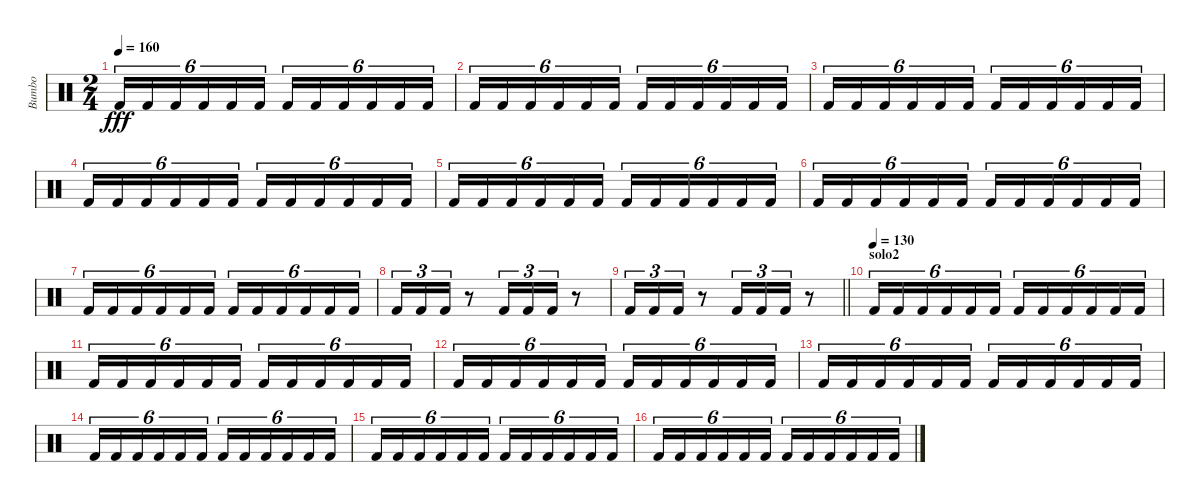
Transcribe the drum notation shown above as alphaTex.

\track ("Bumbo" "Bumbo") {instrument percussion}
\staff {score}
\articulation defaults
\ts (2 4)
\tempo 160
\clef neutral
\ks c "Kick (hit) 2".16{tu (6 4) dy fff} "Kick (hit) 2".16{tu (6 4)} "Kick (hit) 2".16{tu (6 4)} "Kick (hit) 2".16{tu (6 4)} "Kick (hit) 2".16{tu (6 4)} "Kick (hit) 2".16{tu (6 4)} "Kick (hit) 2".16{tu (6 4)} "Kick (hit) 2".16{tu (6 4)} "Kick (hit) 2".16{tu (6 4)} "Kick (hit) 2".16{tu (6 4)} "Kick (hit) 2".16{tu (6 4)} "Kick (hit) 2".16{tu (6 4)}
|
"Kick (hit) 2".16{tu (6 4)} "Kick (hit) 2".16{tu (6 4)} "Kick (hit) 2".16{tu (6 4)} "Kick (hit) 2".16{tu (6 4)} "Kick (hit) 2".16{tu (6 4)} "Kick (hit) 2".16{tu (6 4)} "Kick (hit) 2".16{tu (6 4)} "Kick (hit) 2".16{tu (6 4)} "Kick (hit) 2".16{tu (6 4)} "Kick (hit) 2".16{tu (6 4)} "Kick (hit) 2".16{tu (6 4)} "Kick (hit) 2".16{tu (6 4)} |
"Kick (hit) 2".16{tu (6 4)} "Kick (hit) 2".16{tu (6 4)} "Kick (hit) 2".16{tu (6 4)} "Kick (hit) 2".16{tu (6 4)} "Kick (hit) 2".16{tu (6 4)} "Kick (hit) 2".16{tu (6 4)} "Kick (hit) 2".16{tu (6 4)} "Kick (hit) 2".16{tu (6 4)} "Kick (hit) 2".16{tu (6 4)} "Kick (hit) 2".16{tu (6 4)} "Kick (hit) 2".16{tu (6 4)} "Kick (hit) 2".16{tu (6 4)} |
"Kick (hit) 2".16{tu (6 4)} "Kick (hit) 2".16{tu (6 4)} "Kick (hit) 2".16{tu (6 4)} "Kick (hit) 2".16{tu (6 4)} "Kick (hit) 2".16{tu (6 4)} "Kick (hit) 2".16{tu (6 4)} "Kick (hit) 2".16{tu (6 4)} "Kick (hit) 2".16{tu (6 4)} "Kick (hit) 2".16{tu (6 4)} "Kick (hit) 2".16{tu (6 4)} "Kick (hit) 2".16{tu (6 4)} "Kick (hit) 2".16{tu (6 4)} |
"Kick (hit) 2".16{tu (6 4)} "Kick (hit) 2".16{tu (6 4)} "Kick (hit) 2".16{tu (6 4)} "Kick (hit) 2".16{tu (6 4)} "Kick (hit) 2".16{tu (6 4)} "Kick (hit) 2".16{tu (6 4)} "Kick (hit) 2".16{tu (6 4)} "Kick (hit) 2".16{tu (6 4)} "Kick (hit) 2".16{tu (6 4)} "Kick (hit) 2".16{tu (6 4)} "Kick (hit) 2".16{tu (6 4)} "Kick (hit) 2".16{tu (6 4)} |
"Kick (hit) 2".16{tu (6 4)} "Kick (hit) 2".16{tu (6 4)} "Kick (hit) 2".16{tu (6 4)} "Kick (hit) 2".16{tu (6 4)} "Kick (hit) 2".16{tu (6 4)} "Kick (hit) 2".16{tu (6 4)} "Kick (hit) 2".16{tu (6 4)} "Kick (hit) 2".16{tu (6 4)} "Kick (hit) 2".16{tu (6 4)} "Kick (hit) 2".16{tu (6 4)} "Kick (hit) 2".16{tu (6 4)} "Kick (hit) 2".16{tu (6 4)} |
"Kick (hit) 2".16{tu (6 4)} "Kick (hit) 2".16{tu (6 4)} "Kick (hit) 2".16{tu (6 4)} "Kick (hit) 2".16{tu (6 4)} "Kick (hit) 2".16{tu (6 4)} "Kick (hit) 2".16{tu (6 4)} "Kick (hit) 2".16{tu (6 4)} "Kick (hit) 2".16{tu (6 4)} "Kick (hit) 2".16{tu (6 4)} "Kick (hit) 2".16{tu (6 4)} "Kick (hit) 2".16{tu (6 4)} "Kick (hit) 2".16{tu (6 4)} |
"Kick (hit) 2".16{tu (3 2)} "Kick (hit) 2".16{tu (3 2)} "Kick (hit) 2".16{tu (3 2)} r.8 "Kick (hit) 2".16{tu (3 2)} "Kick (hit) 2".16{tu (3 2)} "Kick (hit) 2".16{tu (3 2)} r.8 |
\barLineRight lightlight "Kick (hit) 2".16{tu (3 2)} "Kick (hit) 2".16{tu (3 2)} "Kick (hit) 2".16{tu (3 2)}
r.8 "Kick (hit) 2".16{tu (3 2)} "Kick (hit) 2".16{tu (3 2)} "Kick (hit) 2".16{tu (3 2)} r.8 |
\section ("" "solo2")
\tempo (130)
"Kick (hit) 2".16{tu (6 4)} "Kick (hit) 2".16{tu (6 4)} "Kick (hit) 2".16{tu (6 4)} "Kick (hit) 2".16{tu (6 4)} "Kick (hit) 2".16{tu (6 4)} "Kick (hit) 2".16{tu (6 4)} "Kick (hit) 2".16{tu (6 4)} "Kick (hit) 2".16{tu (6 4)} "Kick (hit) 2".16{tu (6 4)} "Kick (hit) 2".16{tu (6 4)} "Kick (hit) 2".16{tu (6 4)} "Kick (hit) 2".16{tu (6 4)} |
"Kick (hit) 2".16{tu (6 4)} "Kick (hit) 2".16{tu (6 4)} "Kick (hit) 2".16{tu (6 4)} "Kick (hit) 2".16{tu (6 4)} "Kick (hit) 2".16{tu (6 4)} "Kick (hit) 2".16{tu (6 4)} "Kick (hit) 2".16{tu (6 4)} "Kick (hit) 2".16{tu (6 4)} "Kick (hit) 2".16{tu (6 4)} "Kick (hit) 2".16{tu (6 4)} "Kick (hit) 2".16{tu (6 4)} "Kick (hit) 2".16{tu (6 4)} |
"Kick (hit) 2".16{tu (6 4)} "Kick (hit) 2".16{tu (6 4)} "Kick (hit) 2".16{tu (6 4)} "Kick (hit) 2".16{tu (6 4)} "Kick (hit) 2".16{tu (6 4)} "Kick (hit) 2".16{tu (6 4)} "Kick (hit) 2".16{tu (6 4)} "Kick (hit) 2".16{tu (6 4)} "Kick (hit) 2".16{tu (6 4)} "Kick (hit) 2".16{tu (6 4)} "Kick (hit) 2".16{tu (6 4)} "Kick (hit) 2".16{tu (6 4)} |
"Kick (hit) 2".16{tu (6 4)} "Kick (hit) 2".16{tu (6 4)} "Kick (hit) 2".16{tu (6 4)} "Kick (hit) 2".16{tu (6 4)} "Kick (hit) 2".16{tu (6 4)} "Kick (hit) 2".16{tu (6 4)} "Kick (hit) 2".16{tu (6 4)} "Kick (hit) 2".16{tu (6 4)} "Kick (hit) 2".16{tu (6 4)} "Kick (hit) 2".16{tu (6 4)} "Kick (hit) 2".16{tu (6 4)} "Kick (hit) 2".16{tu (6 4)} |
"Kick (hit) 2".16{tu (6 4)} "Kick (hit) 2".16{tu (6 4)} "Kick (hit) 2".16{tu (6 4)} "Kick (hit) 2".16{tu (6 4)} "Kick (hit) 2".16{tu (6 4)} "Kick (hit) 2".16{tu (6 4)} "Kick (hit) 2".16{tu (6 4)} "Kick (hit) 2".16{tu (6 4)} "Kick (hit) 2".16{tu (6 4)} "Kick (hit) 2".16{tu (6 4)} "Kick (hit) 2".16{tu (6 4)} "Kick (hit) 2".16{tu (6 4)} |
"Kick (hit) 2".16{tu (6 4)} "Kick (hit) 2".16{tu (6 4)} "Kick (hit) 2".16{tu (6 4)} "Kick (hit) 2".16{tu (6 4)} "Kick (hit) 2".16{tu (6 4)} "Kick (hit) 2".16{tu (6 4)} "Kick (hit) 2".16{tu (6 4)} "Kick (hit) 2".16{tu (6 4)} "Kick (hit) 2".16{tu (6 4)} "Kick (hit) 2".16{tu (6 4)} "Kick (hit) 2".16{tu (6 4)} "Kick (hit) 2".16{tu (6 4)} |
"Kick (hit) 2".16{tu (6 4)} "Kick (hit) 2".16{tu (6 4)} "Kick (hit) 2".16{tu (6 4)} "Kick (hit) 2".16{tu (6 4)} "Kick (hit) 2".16{tu (6 4)} "Kick (hit) 2".16{tu (6 4)} "Kick (hit) 2".16{tu (6 4)} "Kick (hit) 2".16{tu (6 4)} "Kick (hit) 2".16{tu (6 4)} "Kick (hit) 2".16{tu (6 4)} "Kick (hit) 2".16{tu (6 4)} "Kick (hit) 2".16{tu (6 4)}
